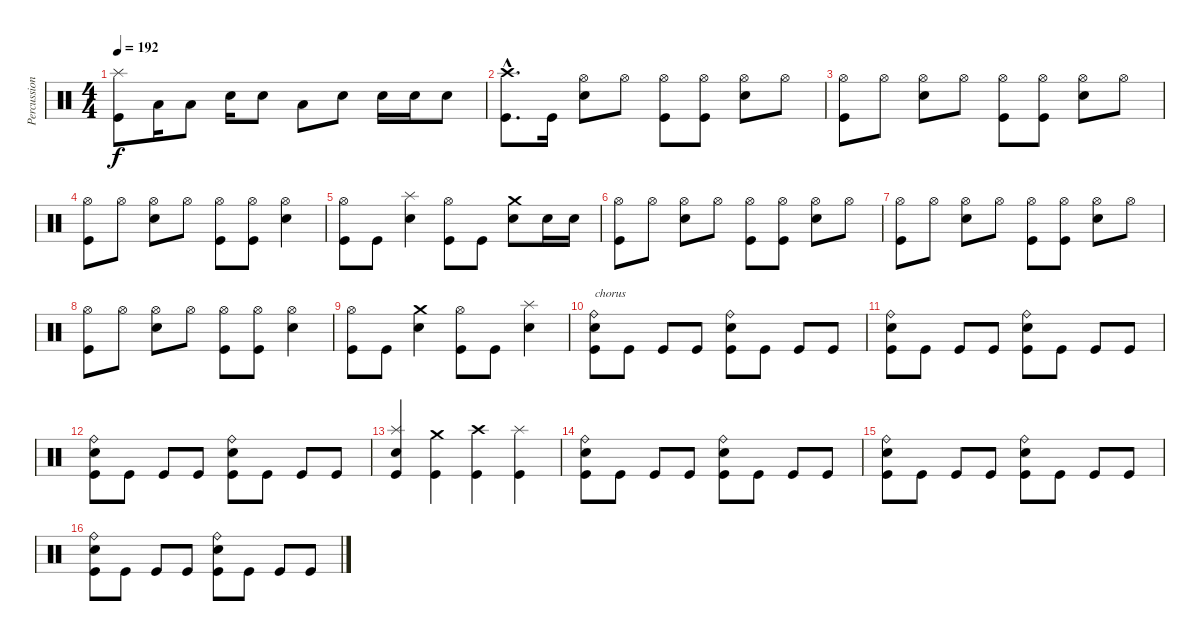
\track ("Percussions" "Percussion") {instrument percussion}
\staff {score}
\articulation defaults
\ts (4 4)
\tempo 192
\clef neutral
\ks c
("Kick (hit)" "Splash (hit)").8{dy f} "Low Tom (hit)".16 "Low Tom (hit)".8 "Electric Snare (hit)".16 "Electric Snare (hit)".8 "Low Tom (hit)".8 "Electric Snare (hit)".8 "Electric Snare (hit)".16 "Electric Snare (hit)".16 "Electric Snare (hit)".8 |
("Kick (hit)"{hac} "Crash high (hit)"{hac}).8{d} "Kick (hit)".16 ("Electric Snare (hit)" "Hi-Hat (open)").8 "Hi-Hat (open)".8 ("Kick (hit)" "Hi-Hat (open)").8 ("Kick (hit)" "Hi-Hat (open)").8 ("Electric Snare (hit)" "Hi-Hat (open)").8 "Hi-Hat (open)".8 |
("Kick (hit)" "Hi-Hat (open)").8 "Hi-Hat (open)".8 ("Electric Snare (hit)" "Hi-Hat (open)").8 "Hi-Hat (open)".8 ("Kick (hit)" "Hi-Hat (open)").8 ("Kick (hit)" "Hi-Hat (open)").8 ("Electric Snare (hit)" "Hi-Hat (open)").8 "Hi-Hat (open)".8 |
("Kick (hit)" "Hi-Hat (open)").8 "Hi-Hat (open)".8 ("Electric Snare (hit)" "Hi-Hat (open)").8 "Hi-Hat (open)".8 ("Kick (hit)" "Hi-Hat (open)").8 ("Kick (hit)" "Hi-Hat (open)").8 ("Electric Snare (hit)" "Hi-Hat (open)").4 |
("Kick (hit)" "Hi-Hat (open)").8 "Kick (hit)".8 ("Electric Snare (hit)" "Splash (hit)").4 ("Kick (hit)" "Hi-Hat (open)").8 "Kick (hit)".8 ("Electric Snare (hit)" "Crash medium (hit)").8 "Electric Snare (hit)".16 "Electric Snare (hit)".16 |
("Kick (hit)" "Hi-Hat (open)").8 "Hi-Hat (open)".8 ("Electric Snare (hit)" "Hi-Hat (open)").8 "Hi-Hat (open)".8 ("Kick (hit)" "Hi-Hat (open)").8 ("Kick (hit)" "Hi-Hat (open)").8 ("Electric Snare (hit)" "Hi-Hat (open)").8 "Hi-Hat (open)".8 |
("Kick (hit)" "Hi-Hat (open)").8 "Hi-Hat (open)".8 ("Electric Snare (hit)" "Hi-Hat (open)").8 "Hi-Hat (open)".8 ("Kick (hit)" "Hi-Hat (open)").8 ("Kick (hit)" "Hi-Hat (open)").8 ("Electric Snare (hit)" "Hi-Hat (open)").8 "Hi-Hat (open)".8 |
("Kick (hit)" "Hi-Hat (open)").8 "Hi-Hat (open)".8 ("Electric Snare (hit)" "Hi-Hat (open)").8 "Hi-Hat (open)".8 ("Kick (hit)" "Hi-Hat (open)").8 ("Kick (hit)" "Hi-Hat (open)").8 ("Electric Snare (hit)" "Hi-Hat (open)").4 |
("Kick (hit)" "Hi-Hat (open)").8 "Kick (hit)".8 ("Electric Snare (hit)" "Crash medium (hit)").4 ("Kick (hit)" "Hi-Hat (open)").8 "Kick (hit)".8 ("Electric Snare (hit)" "Splash (hit)").4 |
("Kick (hit)" "Electric Snare (hit)" "Ride (bell)").8{txt "chorus"} "Kick (hit)".8 "Kick (hit)".8 "Kick (hit)".8 ("Kick (hit)" "Electric Snare (hit)" "Ride (bell)").8 "Kick (hit)".8 "Kick (hit)".8 "Kick (hit)".8 |
("Kick (hit)" "Electric Snare (hit)" "Ride (bell)").8 "Kick (hit)".8 "Kick (hit)".8 "Kick (hit)".8 ("Kick (hit)" "Electric Snare (hit)" "Ride (bell)").8 "Kick (hit)".8 "Kick (hit)".8 "Kick (hit)".8 |
("Kick (hit)" "Electric Snare (hit)" "Ride (bell)").8 "Kick (hit)".8 "Kick (hit)".8 "Kick (hit)".8 ("Kick (hit)" "Electric Snare (hit)" "Ride (bell)").8 "Kick (hit)".8 "Kick (hit)".8 "Kick (hit)".8 |
("Kick (hit)" "Electric Snare (hit)" "Splash (hit)").4 ("Kick (hit)" "Crash medium (hit)").4 ("Kick (hit)" "Crash high (hit)").4 ("Kick (hit)" "Splash (hit)").4 |
("Kick (hit)" "Electric Snare (hit)" "Ride (bell)").8 "Kick (hit)".8 "Kick (hit)".8 "Kick (hit)".8 ("Kick (hit)" "Electric Snare (hit)" "Ride (bell)").8 "Kick (hit)".8 "Kick (hit)".8 "Kick (hit)".8 |
("Kick (hit)" "Electric Snare (hit)" "Ride (bell)").8 "Kick (hit)".8 "Kick (hit)".8 "Kick (hit)".8 ("Kick (hit)" "Electric Snare (hit)" "Ride (bell)").8 "Kick (hit)".8 "Kick (hit)".8 "Kick (hit)".8 |
("Kick (hit)" "Electric Snare (hit)" "Ride (bell)").8 "Kick (hit)".8 "Kick (hit)".8 "Kick (hit)".8 ("Kick (hit)" "Electric Snare (hit)" "Ride (bell)").8 "Kick (hit)".8 "Kick (hit)".8 "Kick (hit)".8
